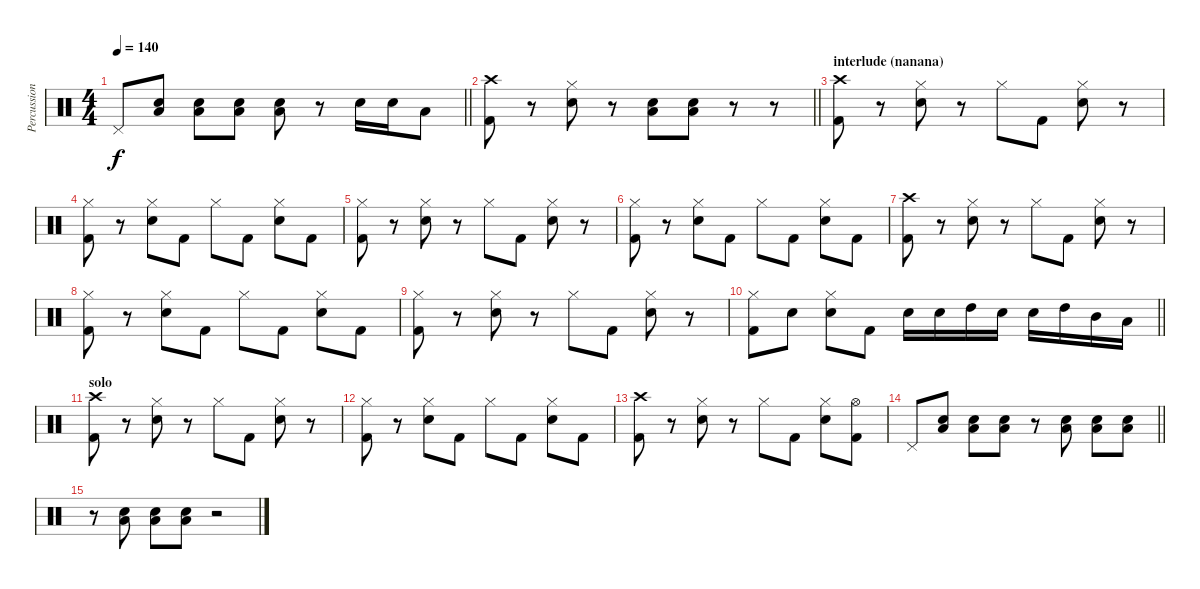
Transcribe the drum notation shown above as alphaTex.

\track ("Percussion" "Percussion") {instrument percussion}
\staff {score}
\articulation defaults
\ts (4 4)
\tempo 140
\clef neutral
\barLineRight lightlight
\ks c "Pedal Hi-Hat (hit)".8{dy f}
("Low Floor Tom (hit)" "Snare (hit) 2").8 ("Low Floor Tom (hit)" "Snare (hit) 2").8 ("Low Floor Tom (hit)" "Snare (hit) 2").8 ("Low Floor Tom (hit)" "Snare (hit) 2").8 r.8 "Snare (hit) 2".16 "Snare (hit) 2".16 "Low Floor Tom (hit)".8 |
\barLineRight lightlight
("Crash high (hit)" "Kick (hit) 2").8 r.8 ("Hi-Hat (closed)" "Snare (hit) 2").8 r.8 ("Low Floor Tom (hit)" "Snare (hit) 2").8 ("Low Floor Tom (hit)" "Snare (hit) 2").8 r.8 r.8 |
\section ("" "interlude (nanana)")
("Crash high (hit)" "Kick (hit) 2").8 r.8 ("Hi-Hat (closed)" "Snare (hit) 2").8 r.8 "Hi-Hat (closed)".8 "Kick (hit) 2".8 ("Hi-Hat (closed)" "Snare (hit) 2").8 r.8 |
("Hi-Hat (closed)" "Kick (hit) 2").8 r.8 ("Hi-Hat (closed)" "Snare (hit) 2").8 "Kick (hit) 2".8 "Hi-Hat (closed)".8 "Kick (hit) 2".8 ("Hi-Hat (closed)" "Snare (hit) 2").8 "Kick (hit) 2".8 |
("Hi-Hat (closed)" "Kick (hit) 2").8 r.8 ("Hi-Hat (closed)" "Snare (hit) 2").8 r.8 "Hi-Hat (closed)".8 "Kick (hit) 2".8 ("Hi-Hat (closed)" "Snare (hit) 2").8 r.8 |
("Hi-Hat (closed)" "Kick (hit) 2").8 r.8 ("Hi-Hat (closed)" "Snare (hit) 2").8 "Kick (hit) 2".8 "Hi-Hat (closed)".8 "Kick (hit) 2".8 ("Hi-Hat (closed)" "Snare (hit) 2").8 "Kick (hit) 2".8 |
("Crash high (hit)" "Kick (hit) 2").8 r.8 ("Hi-Hat (closed)" "Snare (hit) 2").8 r.8 "Hi-Hat (closed)".8 "Kick (hit) 2".8 ("Hi-Hat (closed)" "Snare (hit) 2").8 r.8 |
("Hi-Hat (closed)" "Kick (hit) 2").8 r.8 ("Hi-Hat (closed)" "Snare (hit) 2").8 "Kick (hit) 2".8 "Hi-Hat (closed)".8 "Kick (hit) 2".8 ("Hi-Hat (closed)" "Snare (hit) 2").8 "Kick (hit) 2".8 |
("Hi-Hat (closed)" "Kick (hit) 2").8 r.8 ("Hi-Hat (closed)" "Snare (hit) 2").8 r.8 "Hi-Hat (closed)".8 "Kick (hit) 2".8 ("Hi-Hat (closed)" "Snare (hit) 2").8 r.8 |
\barLineRight lightlight
("Hi-Hat (closed)" "Kick (hit) 2").8 "Snare (hit) 2".8 ("Hi-Hat (closed)" "Snare (hit) 2").8 "Kick (hit) 2".8 "Snare (hit) 2".16 "Snare (hit) 2".16 "High Tom (hit)".16 "Snare (hit) 2".16 "Snare (hit) 2".16 "High Tom (hit)".16 "Mid Tom (hit)".16 "Low Tom (hit)".16 |
\section ("" "solo")
("Crash high (hit)" "Kick (hit) 2").8 r.8 ("Hi-Hat (closed)" "Snare (hit) 2").8 r.8 "Hi-Hat (closed)".8 "Kick (hit) 2".8 ("Hi-Hat (closed)" "Snare (hit) 2").8 r.8 |
("Hi-Hat (closed)" "Kick (hit) 2").8 r.8 ("Hi-Hat (closed)" "Snare (hit) 2").8 "Kick (hit) 2".8 "Hi-Hat (closed)".8 "Kick (hit) 2".8 ("Hi-Hat (closed)" "Snare (hit) 2").8 "Kick (hit) 2".8 |
("Crash high (hit)" "Kick (hit) 2").8 r.8 ("Hi-Hat (closed)" "Snare (hit) 2").8 r.8 "Hi-Hat (closed)".8 "Kick (hit) 2".8 ("Hi-Hat (closed)" "Snare (hit) 2").8 ("Hi-Hat (open)" "Kick (hit) 2").8 |
\barLineRight lightlight "Pedal Hi-Hat (hit)".8
("Low Floor Tom (hit)" "Snare (hit) 2").8 ("Low Floor Tom (hit)" "Snare (hit) 2").8 ("Low Floor Tom (hit)" "Snare (hit) 2").8 r.8 ("Low Floor Tom (hit)" "Snare (hit) 2").8 ("Low Floor Tom (hit)" "Snare (hit) 2").8 ("Low Floor Tom (hit)" "Snare (hit) 2").8 |
r.8 ("Low Floor Tom (hit)" "Snare (hit) 2").8 ("Low Floor Tom (hit)" "Snare (hit) 2").8 ("Low Floor Tom (hit)" "Snare (hit) 2").8 r.2
